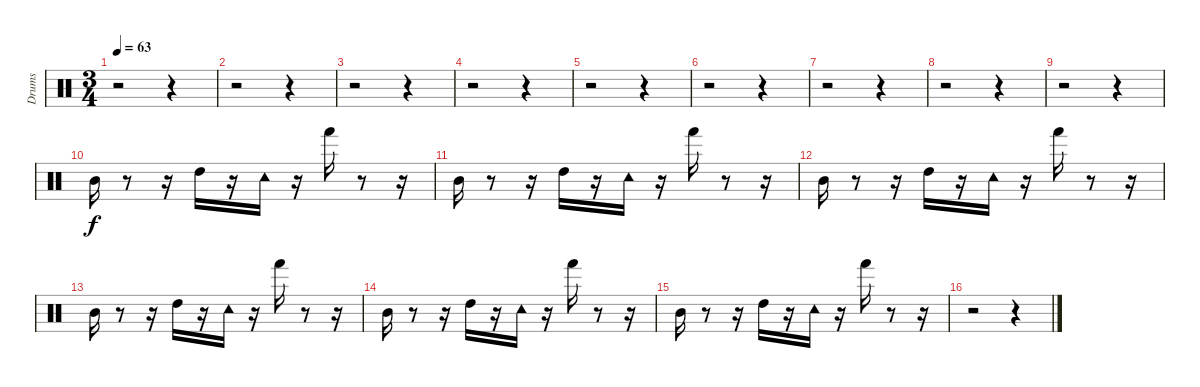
\track ("Drums" "Drums") {instrument percussion}
\staff {score}
\articulation defaults
\ts (3 4)
\tempo 63
\clef neutral
\ks c
r.2{dy f} r.4 |
r.2 r.4 |
r.2 r.4 |
r.2 r.4 |
r.2 r.4 |
r.2 r.4 |
r.2 r.4 |
r.2 r.4 |
r.2 r.4 |
"Mid Tom (hit)".16 r.8 r.16 "High Tom (hit)".16 r.16 "Tambourine (hit)".16 r.16 "Hand (hit)".16 r.8 r.16 |
"Mid Tom (hit)".16 r.8 r.16 "High Tom (hit)".16 r.16 "Tambourine (hit)".16 r.16 "Hand (hit)".16 r.8 r.16 |
"Mid Tom (hit)".16 r.8 r.16 "High Tom (hit)".16 r.16 "Tambourine (hit)".16 r.16 "Hand (hit)".16 r.8 r.16 |
"Mid Tom (hit)".16 r.8 r.16 "High Tom (hit)".16 r.16 "Tambourine (hit)".16 r.16 "Hand (hit)".16 r.8 r.16 |
"Mid Tom (hit)".16 r.8 r.16 "High Tom (hit)".16 r.16 "Tambourine (hit)".16 r.16 "Hand (hit)".16 r.8 r.16 |
"Mid Tom (hit)".16 r.8 r.16 "High Tom (hit)".16 r.16 "Tambourine (hit)".16 r.16 "Hand (hit)".16 r.8 r.16 |
r.2 r.4
